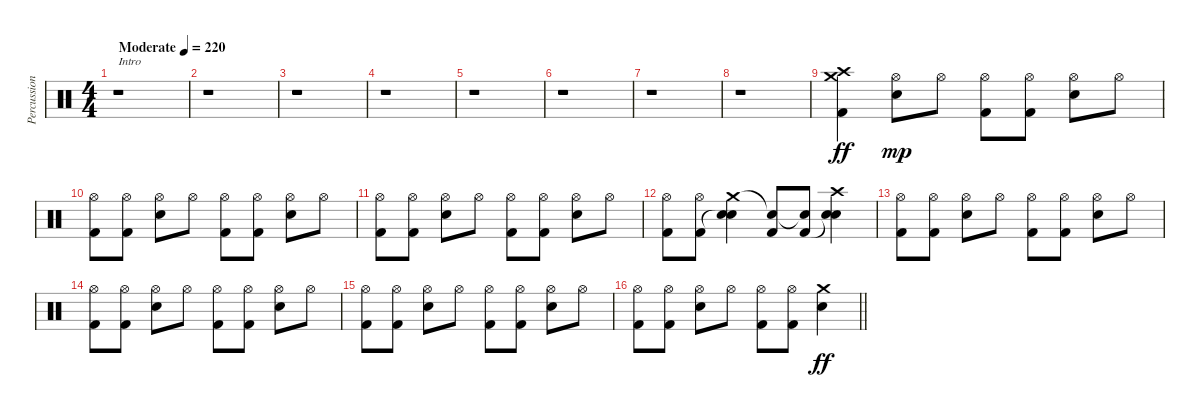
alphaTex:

\track ("Percussion" "Percussion") {instrument percussion}
\staff {score}
\articulation defaults
\ts (4 4)
\tempo (220 "Moderate")
\clef neutral
\ks c
r.1{txt "Intro" dy ff} |
r.1 |
r.1 |
r.1 |
r.1 |
r.1 |
r.1 |
r.1 |
("Crash high (hit)" "Crash medium (hit)" "Kick (hit) 2").4 ("Hi-Hat (open)" "Electric Snare (hit)").8{dy mp} "Hi-Hat (open)".8 ("Hi-Hat (open)" "Kick (hit) 2").8 ("Hi-Hat (open)" "Kick (hit) 2").8 ("Hi-Hat (open)" "Electric Snare (hit)").8 "Hi-Hat (open)".8 |
("Hi-Hat (open)" "Kick (hit) 2").8 ("Hi-Hat (open)" "Kick (hit) 2").8 ("Hi-Hat (open)" "Electric Snare (hit)").8 "Hi-Hat (open)".8 ("Hi-Hat (open)" "Kick (hit) 2").8 ("Hi-Hat (open)" "Kick (hit) 2").8 ("Hi-Hat (open)" "Electric Snare (hit)").8 "Hi-Hat (open)".8 |
("Hi-Hat (open)" "Kick (hit) 2").8 ("Hi-Hat (open)" "Kick (hit) 2").8 ("Hi-Hat (open)" "Electric Snare (hit)").8 "Hi-Hat (open)".8 ("Hi-Hat (open)" "Kick (hit) 2").8 ("Hi-Hat (open)" "Kick (hit) 2").8 ("Hi-Hat (open)" "Electric Snare (hit)").8 "Hi-Hat (open)".8 |
("Hi-Hat (open)" "Kick (hit) 2").8 ("Hi-Hat (open)" "Kick (hit) 2").8 ("Crash medium (hit)" "Snare (hit)"{t} "Electric Snare (hit)").4 ("Snare (hit)"{t} "Kick (hit) 2").8 ("Snare (hit)"{t} "Kick (hit) 2").8 ("Crash high (hit)" "Snare (hit)"{t} "Electric Snare (hit)").4 |
("Hi-Hat (open)" "Kick (hit) 2").8 ("Hi-Hat (open)" "Kick (hit) 2").8 ("Hi-Hat (open)" "Electric Snare (hit)").8 "Hi-Hat (open)".8 ("Hi-Hat (open)" "Kick (hit) 2").8 ("Hi-Hat (open)" "Kick (hit) 2").8 ("Hi-Hat (open)" "Electric Snare (hit)").8 "Hi-Hat (open)".8 |
("Hi-Hat (open)" "Kick (hit) 2").8 ("Hi-Hat (open)" "Kick (hit) 2").8 ("Hi-Hat (open)" "Electric Snare (hit)").8 "Hi-Hat (open)".8 ("Hi-Hat (open)" "Kick (hit) 2").8 ("Hi-Hat (open)" "Kick (hit) 2").8 ("Hi-Hat (open)" "Electric Snare (hit)").8 "Hi-Hat (open)".8 |
("Hi-Hat (open)" "Kick (hit) 2").8 ("Hi-Hat (open)" "Kick (hit) 2").8 ("Hi-Hat (open)" "Electric Snare (hit)").8 "Hi-Hat (open)".8 ("Hi-Hat (open)" "Kick (hit) 2").8 ("Hi-Hat (open)" "Kick (hit) 2").8 ("Hi-Hat (open)" "Electric Snare (hit)").8 "Hi-Hat (open)".8 |
\barLineRight lightlight
("Hi-Hat (open)" "Kick (hit) 2").8 ("Hi-Hat (open)" "Kick (hit) 2").8 ("Hi-Hat (open)" "Electric Snare (hit)").8 "Hi-Hat (open)".8 ("Hi-Hat (open)" "Kick (hit) 2").8 ("Hi-Hat (open)" "Kick (hit) 2").8 ("Crash medium (hit)" "Electric Snare (hit)").4{dy ff}
